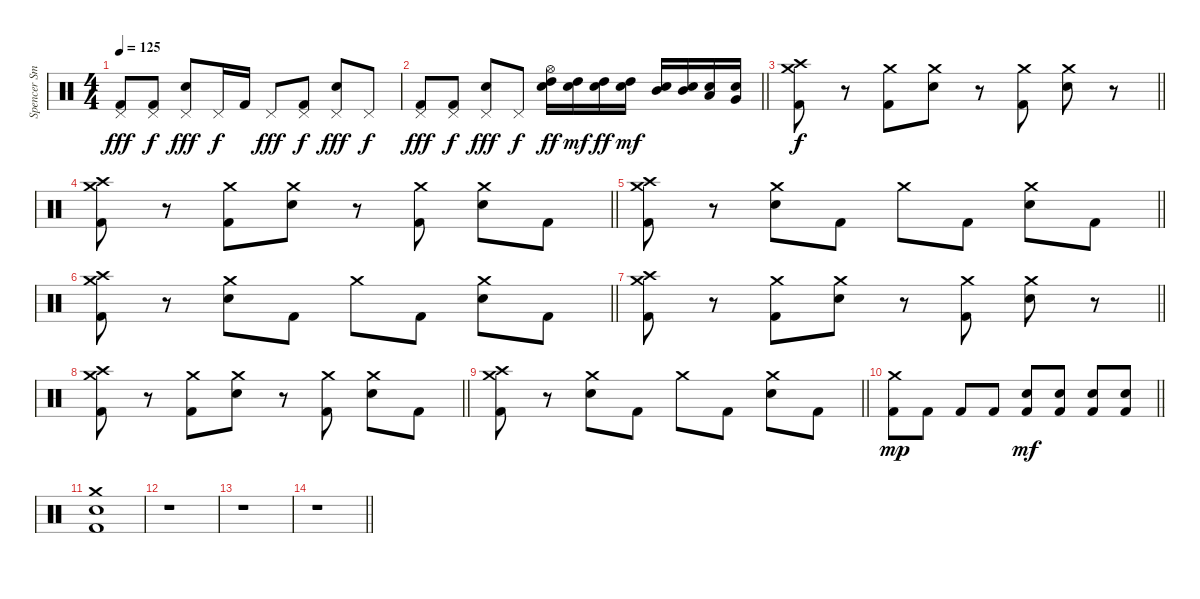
\track ("Spencer Smith (Drums)" "Spencer Sm") {instrument percussion}
\staff {score}
\articulation defaults
\ts (4 4)
\tempo 125
\clef neutral
\ks c
("Pedal Hi-Hat (hit)" "Kick (hit) 2").8{dy fff} ("Pedal Hi-Hat (hit)" "Kick (hit) 2").8{dy f} ("Pedal Hi-Hat (hit)" "Electric Snare (hit)").8{dy fff} "Pedal Hi-Hat (hit)".16{dy f} "Kick (hit) 2".16 "Pedal Hi-Hat (hit)".8{dy fff} ("Pedal Hi-Hat (hit)" "Kick (hit) 2").8{dy f} ("Pedal Hi-Hat (hit)" "Electric Snare (hit)").8{dy fff} "Pedal Hi-Hat (hit)".8{dy f} |
\barLineRight lightlight
("Pedal Hi-Hat (hit)" "Kick (hit) 2").8{dy fff} ("Pedal Hi-Hat (hit)" "Kick (hit) 2").8{dy f} ("Pedal Hi-Hat (hit)" "Electric Snare (hit)").8{dy fff} "Pedal Hi-Hat (hit)".8{dy f} ("Hi-Hat (open)" "Electric Snare (hit)" "High Tom (hit)").16{dy ff} ("Electric Snare (hit)" "High Tom (hit)").16{dy mf} ("Electric Snare (hit)" "High Tom (hit)").16{dy ff} ("Electric Snare (hit)" "High Tom (hit)").16{dy mf} ("Electric Snare (hit)" "Mid Tom (hit)").16 ("Electric Snare (hit)" "Mid Tom (hit)").16 ("Electric Snare (hit)" "Low Tom (hit)").16 ("Electric Snare (hit)" "Very Low Tom (hit)").16 |
\barLineRight lightlight
("Crash high (hit)" "Crash medium (hit)" "Kick (hit) 2").8{dy f} r.8 ("Crash medium (hit)" "Kick (hit) 2").8 ("Crash medium (hit)" "Electric Snare (hit)").8 r.8 ("Crash medium (hit)" "Kick (hit) 2").8 ("Crash medium (hit)" "Electric Snare (hit)").8 r.8 |
\barLineRight lightlight
("Crash high (hit)" "Crash medium (hit)" "Kick (hit) 2").8 r.8 ("Crash medium (hit)" "Kick (hit) 2").8 ("Crash medium (hit)" "Electric Snare (hit)").8 r.8 ("Crash medium (hit)" "Kick (hit) 2").8 ("Crash medium (hit)" "Electric Snare (hit)").8 "Kick (hit) 2".8 |
\barLineRight lightlight
("Crash medium (hit)" "Crash high (hit)" "Kick (hit) 2").8 r.8 ("Crash medium (hit)" "Electric Snare (hit)").8 "Kick (hit) 2".8 "Crash medium (hit)".8 "Kick (hit) 2".8 ("Crash medium (hit)" "Electric Snare (hit)").8 "Kick (hit) 2".8 |
\barLineRight lightlight
("Crash medium (hit)" "Crash high (hit)" "Kick (hit) 2").8 r.8 ("Crash medium (hit)" "Electric Snare (hit)").8 "Kick (hit) 2".8 "Crash medium (hit)".8 "Kick (hit) 2".8 ("Crash medium (hit)" "Electric Snare (hit)").8 "Kick (hit) 2".8 |
\barLineRight lightlight
("Crash high (hit)" "Crash medium (hit)" "Kick (hit) 2").8 r.8 ("Crash medium (hit)" "Kick (hit) 2").8 ("Crash medium (hit)" "Electric Snare (hit)").8 r.8 ("Crash medium (hit)" "Kick (hit) 2").8 ("Crash medium (hit)" "Electric Snare (hit)").8 r.8 |
\barLineRight lightlight
("Crash high (hit)" "Crash medium (hit)" "Kick (hit) 2").8 r.8 ("Crash medium (hit)" "Kick (hit) 2").8 ("Crash medium (hit)" "Electric Snare (hit)").8 r.8 ("Crash medium (hit)" "Kick (hit) 2").8 ("Crash medium (hit)" "Electric Snare (hit)").8 "Kick (hit) 2".8 |
\barLineRight lightlight
("Crash medium (hit)" "Crash high (hit)" "Kick (hit) 2").8 r.8 ("Crash medium (hit)" "Electric Snare (hit)").8 "Kick (hit) 2".8 "Crash medium (hit)".8 "Kick (hit) 2".8 ("Crash medium (hit)" "Electric Snare (hit)").8 "Kick (hit) 2".8 |
\barLineRight lightlight
("Crash medium (hit)" "Kick (hit) 2").8{dy mp} "Kick (hit) 2".8 "Kick (hit) 2".8 "Kick (hit) 2".8 ("Electric Snare (hit)" "Kick (hit) 2").8{dy mf} ("Electric Snare (hit)" "Kick (hit) 2").8 ("Electric Snare (hit)" "Kick (hit) 2").8 ("Electric Snare (hit)" "Kick (hit) 2").8 |
("Crash medium (hit)" "Electric Snare (hit)" "Kick (hit) 2").1 |
r.1 |
r.1 |
\barLineRight lightlight
r.1
